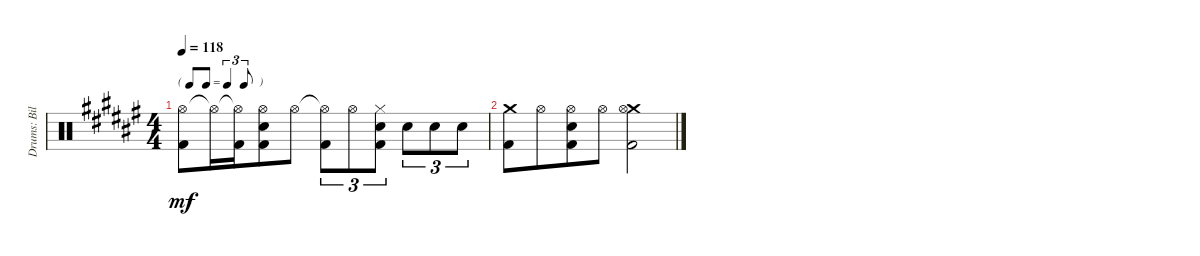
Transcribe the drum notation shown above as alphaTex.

\track ("Drums: Bill" "Drums: Bil") {instrument percussion}
\staff {score}
\articulation defaults
\ts (4 4)
\tf triplet8th
\tempo 118
\clef neutral
\ks f#
("Hi-Hat (open)" "Kick (hit) 2").8{dy mf} "Hi-Hat (open)"{t}.16 ("Hi-Hat (open)"{t} "Kick (hit) 2").16{beam merge} ("Hi-Hat (open)" "Snare (hit) 2" "Kick (hit) 2").8 "Hi-Hat (open)".8 ("Hi-Hat (open)"{t} "Kick (hit) 2").8{tu (3 2)} "Hi-Hat (open)".8{tu (3 2)} ("Hi-Hat (closed)" "Electric Snare (hit)" "Kick (hit) 2").8{tu (3 2)} "Electric Snare (hit)".8{tu (3 2)} "Electric Snare (hit)".8{tu (3 2)} "Electric Snare (hit)".8{tu (3 2)} |
("Crash medium (hit)" "Kick (hit) 2").8 "Hi-Hat (open)".8{beam merge} ("Hi-Hat (open)" "Snare (hit) 2" "Kick (hit) 2").8 "Hi-Hat (open)".8 ("Crash medium (hit)" "Hi-Hat (open)" "Kick (hit) 2").2
